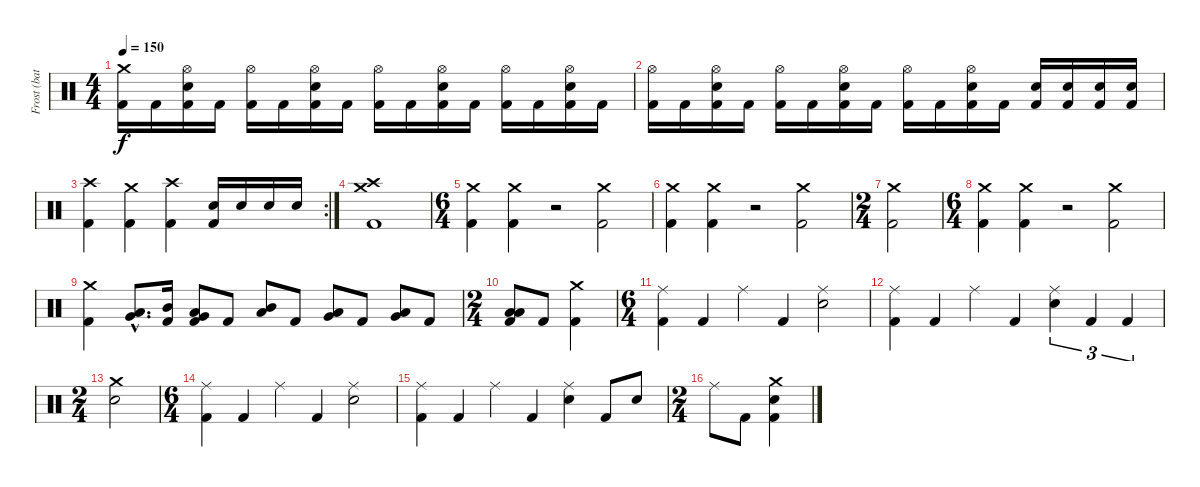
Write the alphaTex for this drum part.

\track ("Frost (battery)" "Frost (bat") {instrument percussion}
\staff {score}
\articulation defaults
\ts (4 4)
\tempo 150
\clef neutral
\ks c
("Crash medium (hit)" "Kick (hit) 2").16{dy f} "Kick (hit) 2".16 ("Hi-Hat (open)" "Electric Snare (hit)" "Kick (hit) 2").16 "Kick (hit) 2".16 ("Hi-Hat (open)" "Kick (hit) 2").16 "Kick (hit) 2".16 ("Hi-Hat (open)" "Electric Snare (hit)" "Kick (hit) 2").16 "Kick (hit) 2".16 ("Hi-Hat (open)" "Kick (hit) 2").16 "Kick (hit) 2".16 ("Hi-Hat (open)" "Electric Snare (hit)" "Kick (hit) 2").16 "Kick (hit) 2".16 ("Hi-Hat (open)" "Kick (hit) 2").16 "Kick (hit) 2".16 ("Hi-Hat (open)" "Electric Snare (hit)" "Kick (hit) 2").16 "Kick (hit) 2".16 |
("Hi-Hat (open)" "Kick (hit) 2").16 "Kick (hit) 2".16 ("Hi-Hat (open)" "Electric Snare (hit)" "Kick (hit) 2").16 "Kick (hit) 2".16 ("Hi-Hat (open)" "Kick (hit) 2").16 "Kick (hit) 2".16 ("Hi-Hat (open)" "Electric Snare (hit)" "Kick (hit) 2").16 "Kick (hit) 2".16 ("Hi-Hat (open)" "Kick (hit) 2").16 "Kick (hit) 2".16 ("Hi-Hat (open)" "Electric Snare (hit)" "Kick (hit) 2").16 "Kick (hit) 2".16 ("Electric Snare (hit)" "Kick (hit) 2").16 ("Electric Snare (hit)" "Kick (hit) 2").16 ("Electric Snare (hit)" "Kick (hit) 2").16 ("Electric Snare (hit)" "Kick (hit) 2").16 |
\rc 2
("Crash high (hit)" "Kick (hit) 2").4 ("Crash medium (hit)" "Kick (hit) 2").4 ("Crash high (hit)" "Kick (hit) 2").4 ("Electric Snare (hit)" "Kick (hit) 2").16 "Electric Snare (hit)".16 "Electric Snare (hit)".16 "Electric Snare (hit)".16 |
("Crash high (hit)" "Crash medium (hit)" "Kick (hit) 2").1 |
\ts (6 4)
("Crash medium (hit)" "Kick (hit) 2").4 ("Crash medium (hit)" "Kick (hit) 2").4 r.2 ("Crash medium (hit)" "Kick (hit) 2").2 |
("Crash medium (hit)" "Kick (hit) 2").4 ("Crash medium (hit)" "Kick (hit) 2").4 r.2 ("Crash medium (hit)" "Kick (hit) 2").2 |
\ts (2 4)
("Crash medium (hit)" "Kick (hit) 2").2 |
\ts (6 4)
("Crash medium (hit)" "Kick (hit) 2").4 ("Crash medium (hit)" "Kick (hit) 2").4 r.2 ("Crash medium (hit)" "Kick (hit) 2").2 |
("Crash medium (hit)" "Kick (hit) 2").4 ("Very Low Tom (hit)"{hac} "Low Tom (hit)"{hac}).8{d} ("Mid Tom (hit)" "Kick (hit) 2").16 ("Very Low Tom (hit)" "Low Tom (hit)" "Kick (hit) 2").8 "Kick (hit) 2".8 ("Mid Tom (hit)" "Low Tom (hit)").8 "Kick (hit) 2".8 ("Very Low Tom (hit)" "Low Tom (hit)").8 "Kick (hit) 2".8 ("Low Floor Tom (hit)" "Very Low Tom (hit)").8 "Kick (hit) 2".8 |
\ts (2 4)
("Low Floor Tom (hit)" "Low Floor Tom (hit)" "Kick (hit) 2").8 "Kick (hit) 2".8 ("Crash medium (hit)" "Kick (hit) 2").4 |
\ts (6 4)
("Ride (middle)" "Kick (hit) 2").4 "Kick (hit) 2".4 "Ride (middle)".4 "Kick (hit) 2".4 ("Ride (middle)" "Snare (hit) 2").2 |
("Ride (middle)" "Kick (hit) 2").4 "Kick (hit) 2".4 "Ride (middle)".4 "Kick (hit) 2".4 ("Ride (middle)" "Snare (hit) 2").4{tu (3 2)} "Kick (hit) 2".4{tu (3 2)} "Kick (hit) 2".4{tu (3 2)} |
\ts (2 4)
("Crash medium (hit)" "Snare (hit) 2").2 |
\ts (6 4)
("Ride (middle)" "Kick (hit) 2").4 "Kick (hit) 2".4 "Ride (middle)".4 "Kick (hit) 2".4 ("Ride (middle)" "Snare (hit) 2").2 |
("Ride (middle)" "Kick (hit) 2").4 "Kick (hit) 2".4 "Ride (middle)".4 "Kick (hit) 2".4 ("Ride (middle)" "Snare (hit) 2").4 "Kick (hit) 2".8 "Electric Snare (hit)".8 |
\ts (2 4)
"Ride (middle)".8 "Kick (hit) 2".8 ("Crash medium (hit)" "Electric Snare (hit)" "Kick (hit) 2").4
